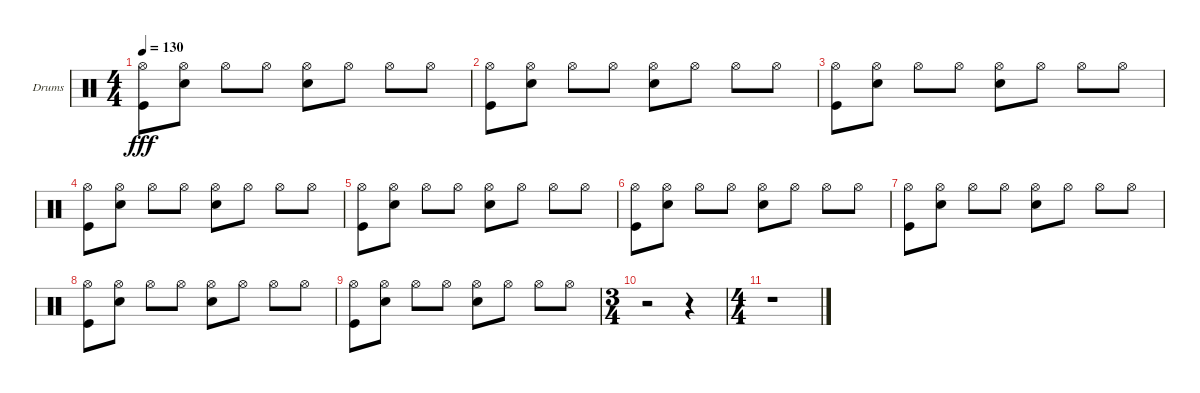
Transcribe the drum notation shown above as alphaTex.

\bracketExtendMode groupsimilarinstruments
\firstSystemTrackNameOrientation horizontal
\otherSystemsTrackNameOrientation horizontal
\track ("Drumkit" "Drums") {instrument percussion}
\staff {score}
\articulation defaults
\ts (4 4)
\tempo 130
\clef neutral
\ks c
("Hi-Hat (open)" "Kick (hit)").8{dy fff} ("Hi-Hat (open)" "Snare (hit) 2").8 "Hi-Hat (open)".8 "Hi-Hat (open)".8 ("Hi-Hat (open)" "Snare (hit) 2").8 "Hi-Hat (open)".8 "Hi-Hat (open)".8 "Hi-Hat (open)".8 |
("Hi-Hat (open)" "Kick (hit)").8 ("Hi-Hat (open)" "Snare (hit) 2").8 "Hi-Hat (open)".8 "Hi-Hat (open)".8 ("Hi-Hat (open)" "Snare (hit) 2").8 "Hi-Hat (open)".8 "Hi-Hat (open)".8 "Hi-Hat (open)".8 |
("Hi-Hat (open)" "Kick (hit)").8 ("Hi-Hat (open)" "Snare (hit) 2").8 "Hi-Hat (open)".8 "Hi-Hat (open)".8 ("Hi-Hat (open)" "Snare (hit) 2").8 "Hi-Hat (open)".8 "Hi-Hat (open)".8 "Hi-Hat (open)".8 |
("Hi-Hat (open)" "Kick (hit)").8 ("Hi-Hat (open)" "Snare (hit) 2").8 "Hi-Hat (open)".8 "Hi-Hat (open)".8 ("Hi-Hat (open)" "Snare (hit) 2").8 "Hi-Hat (open)".8 "Hi-Hat (open)".8 "Hi-Hat (open)".8 |
("Hi-Hat (open)" "Kick (hit)").8 ("Hi-Hat (open)" "Snare (hit) 2").8 "Hi-Hat (open)".8 "Hi-Hat (open)".8 ("Hi-Hat (open)" "Snare (hit) 2").8 "Hi-Hat (open)".8 "Hi-Hat (open)".8 "Hi-Hat (open)".8 |
("Hi-Hat (open)" "Kick (hit)").8 ("Hi-Hat (open)" "Snare (hit) 2").8 "Hi-Hat (open)".8 "Hi-Hat (open)".8 ("Hi-Hat (open)" "Snare (hit) 2").8 "Hi-Hat (open)".8 "Hi-Hat (open)".8 "Hi-Hat (open)".8 |
("Hi-Hat (open)" "Kick (hit)").8 ("Hi-Hat (open)" "Snare (hit) 2").8 "Hi-Hat (open)".8 "Hi-Hat (open)".8 ("Hi-Hat (open)" "Snare (hit) 2").8 "Hi-Hat (open)".8 "Hi-Hat (open)".8 "Hi-Hat (open)".8 |
("Hi-Hat (open)" "Kick (hit)").8 ("Hi-Hat (open)" "Snare (hit) 2").8 "Hi-Hat (open)".8 "Hi-Hat (open)".8 ("Hi-Hat (open)" "Snare (hit) 2").8 "Hi-Hat (open)".8 "Hi-Hat (open)".8 "Hi-Hat (open)".8 |
("Hi-Hat (open)" "Kick (hit)").8 ("Hi-Hat (open)" "Snare (hit) 2").8 "Hi-Hat (open)".8 "Hi-Hat (open)".8 ("Hi-Hat (open)" "Snare (hit) 2").8 "Hi-Hat (open)".8 "Hi-Hat (open)".8 "Hi-Hat (open)".8 |
\ts (3 4)
r.2 r.4 |
\ts (4 4)
r.1
